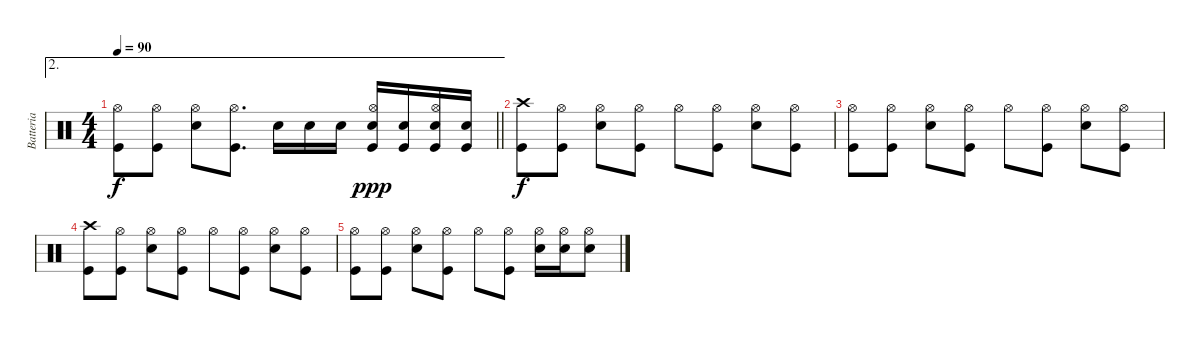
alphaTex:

\track ("Batteria" "Batteria") {instrument percussion}
\staff {score}
\articulation defaults
\ae 2
\ts (4 4)
\tempo 90
\clef neutral
\barLineRight lightlight
\ks c
("Kick (hit)" "Hi-Hat (open)").8{dy f} ("Kick (hit)" "Hi-Hat (open)").8 ("Snare (hit) 2" "Hi-Hat (open)").8 ("Kick (hit)" "Hi-Hat (open)").8{d} "Snare (hit) 2".16 "Snare (hit) 2".16 "Snare (hit) 2".16 ("Snare (hit) 2" "Kick (hit)" "Hi-Hat (open)").16{dy ppp} ("Snare (hit) 2" "Kick (hit)").16 ("Snare (hit) 2" "Kick (hit)" "Hi-Hat (open)").16 ("Snare (hit) 2" "Kick (hit)").16 |
("Kick (hit)" "Crash high (hit)").8{dy f} ("Kick (hit)" "Hi-Hat (open)").8 ("Snare (hit) 2" "Hi-Hat (open)").8 ("Kick (hit)" "Hi-Hat (open)").8 "Hi-Hat (open)".8 ("Kick (hit)" "Hi-Hat (open)").8 ("Snare (hit) 2" "Hi-Hat (open)").8 ("Kick (hit)" "Hi-Hat (open)").8 |
("Kick (hit)" "Hi-Hat (open)").8 ("Kick (hit)" "Hi-Hat (open)").8 ("Snare (hit) 2" "Hi-Hat (open)").8 ("Kick (hit)" "Hi-Hat (open)").8 "Hi-Hat (open)".8 ("Kick (hit)" "Hi-Hat (open)").8 ("Snare (hit) 2" "Hi-Hat (open)").8 ("Kick (hit)" "Hi-Hat (open)").8 |
("Kick (hit)" "Crash high (hit)").8 ("Kick (hit)" "Hi-Hat (open)").8 ("Snare (hit) 2" "Hi-Hat (open)").8 ("Kick (hit)" "Hi-Hat (open)").8 "Hi-Hat (open)".8 ("Kick (hit)" "Hi-Hat (open)").8 ("Snare (hit) 2" "Hi-Hat (open)").8 ("Kick (hit)" "Hi-Hat (open)").8 |
("Kick (hit)" "Hi-Hat (open)").8 ("Kick (hit)" "Hi-Hat (open)").8 ("Snare (hit) 2" "Hi-Hat (open)").8 ("Kick (hit)" "Hi-Hat (open)").8 "Hi-Hat (open)".8 ("Kick (hit)" "Hi-Hat (open)").8 ("Snare (hit) 2" "Hi-Hat (open)").16 ("Snare (hit) 2" "Hi-Hat (open)").16 ("Snare (hit) 2" "Hi-Hat (open)").8
